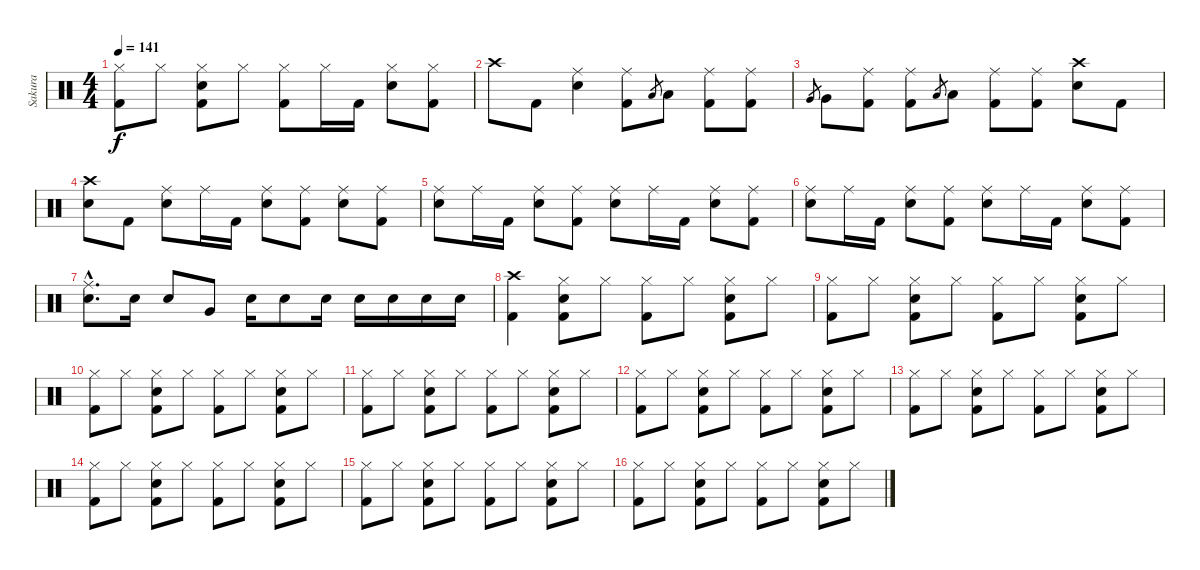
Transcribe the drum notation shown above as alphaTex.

\track ("Sakura" "Sakura") {instrument percussion}
\staff {score}
\articulation defaults
\ts (4 4)
\tempo 141
\clef neutral
\ks c
("Hi-Hat (closed)" "Kick (hit) 2").8{dy f} "Hi-Hat (closed)".8 ("Hi-Hat (closed)" "Snare (hit) 2" "Kick (hit) 2").8 "Hi-Hat (closed)".8 ("Hi-Hat (closed)" "Kick (hit) 2").8 "Hi-Hat (closed)".16 "Kick (hit) 2".16 ("Hi-Hat (closed)" "Snare (hit) 2").8 ("Hi-Hat (closed)" "Kick (hit) 2").8 |
"Crash high (hit)".8 "Kick (hit) 2".8 ("Ride (middle)" "Snare (hit) 2").4 ("Ride (middle)" "Kick (hit) 2").8 "Low Tom (hit)".8{gr} "Low Tom (hit)".8 ("Ride (middle)" "Kick (hit) 2").8 ("Ride (middle)" "Kick (hit) 2").8 |
"Very Low Tom (hit)".8{gr} "Very Low Tom (hit)".8 ("Ride (middle)" "Kick (hit) 2").8 ("Ride (middle)" "Kick (hit) 2").8 "Low Tom (hit)".8{gr} "Low Tom (hit)".8 ("Ride (middle)" "Kick (hit) 2").8 ("Ride (middle)" "Kick (hit) 2").8 ("Crash high (hit)" "Snare (hit) 2").8 "Kick (hit) 2".8 |
("Crash high (hit)" "Snare (hit) 2").8 "Kick (hit) 2".8 ("Ride (middle)" "Snare (hit) 2").8 "Ride (middle)".16 "Kick (hit) 2".16 ("Ride (middle)" "Snare (hit) 2").8 ("Ride (middle)" "Kick (hit) 2").8 ("Ride (middle)" "Snare (hit) 2").8 ("Ride (middle)" "Kick (hit) 2").8 |
("Ride (middle)" "Snare (hit) 2").8 "Ride (middle)".16 "Kick (hit) 2".16 ("Ride (middle)" "Snare (hit) 2").8 ("Ride (middle)" "Kick (hit) 2").8 ("Ride (middle)" "Snare (hit) 2").8 "Ride (middle)".16 "Kick (hit) 2".16 ("Ride (middle)" "Snare (hit) 2").8 ("Ride (middle)" "Kick (hit) 2").8 |
("Ride (middle)" "Snare (hit) 2").8 "Ride (middle)".16 "Kick (hit) 2".16 ("Ride (middle)" "Snare (hit) 2").8 ("Ride (middle)" "Kick (hit) 2").8 ("Ride (middle)" "Snare (hit) 2").8 "Ride (middle)".16 "Kick (hit) 2".16 ("Ride (middle)" "Snare (hit) 2").8 ("Ride (middle)" "Kick (hit) 2").8 |
("Ride (middle)"{hac} "Snare (hit) 2"{hac}).8{d} "Snare (hit) 2".16 "Snare (hit) 2".8 "Very Low Tom (hit)".8 "Snare (hit) 2".16 "Snare (hit) 2".8 "Snare (hit) 2".16 "Snare (hit) 2".16 "Snare (hit) 2".16 "Snare (hit) 2".16 "Snare (hit) 2".16 |
("Crash high (hit)" "Kick (hit) 2").4 ("Hi-Hat (closed)" "Snare (hit) 2" "Kick (hit) 2").8 "Hi-Hat (closed)".8 ("Hi-Hat (closed)" "Kick (hit) 2").8 "Hi-Hat (closed)".8 ("Hi-Hat (closed)" "Snare (hit) 2" "Kick (hit) 2").8 "Hi-Hat (closed)".8 |
("Hi-Hat (closed)" "Kick (hit) 2").8 "Hi-Hat (closed)".8 ("Hi-Hat (closed)" "Snare (hit) 2" "Kick (hit) 2").8 "Hi-Hat (closed)".8 ("Hi-Hat (closed)" "Kick (hit) 2").8 "Hi-Hat (closed)".8 ("Hi-Hat (closed)" "Snare (hit) 2" "Kick (hit) 2").8 "Hi-Hat (closed)".8 |
("Hi-Hat (closed)" "Kick (hit) 2").8 "Hi-Hat (closed)".8 ("Hi-Hat (closed)" "Snare (hit) 2" "Kick (hit) 2").8 "Hi-Hat (closed)".8 ("Hi-Hat (closed)" "Kick (hit) 2").8 "Hi-Hat (closed)".8 ("Hi-Hat (closed)" "Snare (hit) 2" "Kick (hit) 2").8 "Hi-Hat (closed)".8 |
("Hi-Hat (closed)" "Kick (hit) 2").8 "Hi-Hat (closed)".8 ("Hi-Hat (closed)" "Snare (hit) 2" "Kick (hit) 2").8 "Hi-Hat (closed)".8 ("Hi-Hat (closed)" "Kick (hit) 2").8 "Hi-Hat (closed)".8 ("Hi-Hat (closed)" "Snare (hit) 2" "Kick (hit) 2").8 "Hi-Hat (closed)".8 |
("Hi-Hat (closed)" "Kick (hit) 2").8 "Hi-Hat (closed)".8 ("Hi-Hat (closed)" "Snare (hit) 2" "Kick (hit) 2").8 "Hi-Hat (closed)".8 ("Hi-Hat (closed)" "Kick (hit) 2").8 "Hi-Hat (closed)".8 ("Hi-Hat (closed)" "Snare (hit) 2" "Kick (hit) 2").8 "Hi-Hat (closed)".8 |
("Hi-Hat (closed)" "Kick (hit) 2").8 "Hi-Hat (closed)".8 ("Hi-Hat (closed)" "Snare (hit) 2" "Kick (hit) 2").8 "Hi-Hat (closed)".8 ("Hi-Hat (closed)" "Kick (hit) 2").8 "Hi-Hat (closed)".8 ("Hi-Hat (closed)" "Snare (hit) 2" "Kick (hit) 2").8 "Hi-Hat (closed)".8 |
("Hi-Hat (closed)" "Kick (hit) 2").8 "Hi-Hat (closed)".8 ("Hi-Hat (closed)" "Snare (hit) 2" "Kick (hit) 2").8 "Hi-Hat (closed)".8 ("Hi-Hat (closed)" "Kick (hit) 2").8 "Hi-Hat (closed)".8 ("Hi-Hat (closed)" "Snare (hit) 2" "Kick (hit) 2").8 "Hi-Hat (closed)".8 |
("Hi-Hat (closed)" "Kick (hit) 2").8 "Hi-Hat (closed)".8 ("Hi-Hat (closed)" "Snare (hit) 2" "Kick (hit) 2").8 "Hi-Hat (closed)".8 ("Hi-Hat (closed)" "Kick (hit) 2").8 "Hi-Hat (closed)".8 ("Hi-Hat (closed)" "Snare (hit) 2" "Kick (hit) 2").8 "Hi-Hat (closed)".8 |
("Hi-Hat (closed)" "Kick (hit) 2").8 "Hi-Hat (closed)".8 ("Hi-Hat (closed)" "Snare (hit) 2" "Kick (hit) 2").8 "Hi-Hat (closed)".8 ("Hi-Hat (closed)" "Kick (hit) 2").8 "Hi-Hat (closed)".8 ("Hi-Hat (closed)" "Snare (hit) 2" "Kick (hit) 2").8 "Hi-Hat (closed)".8
